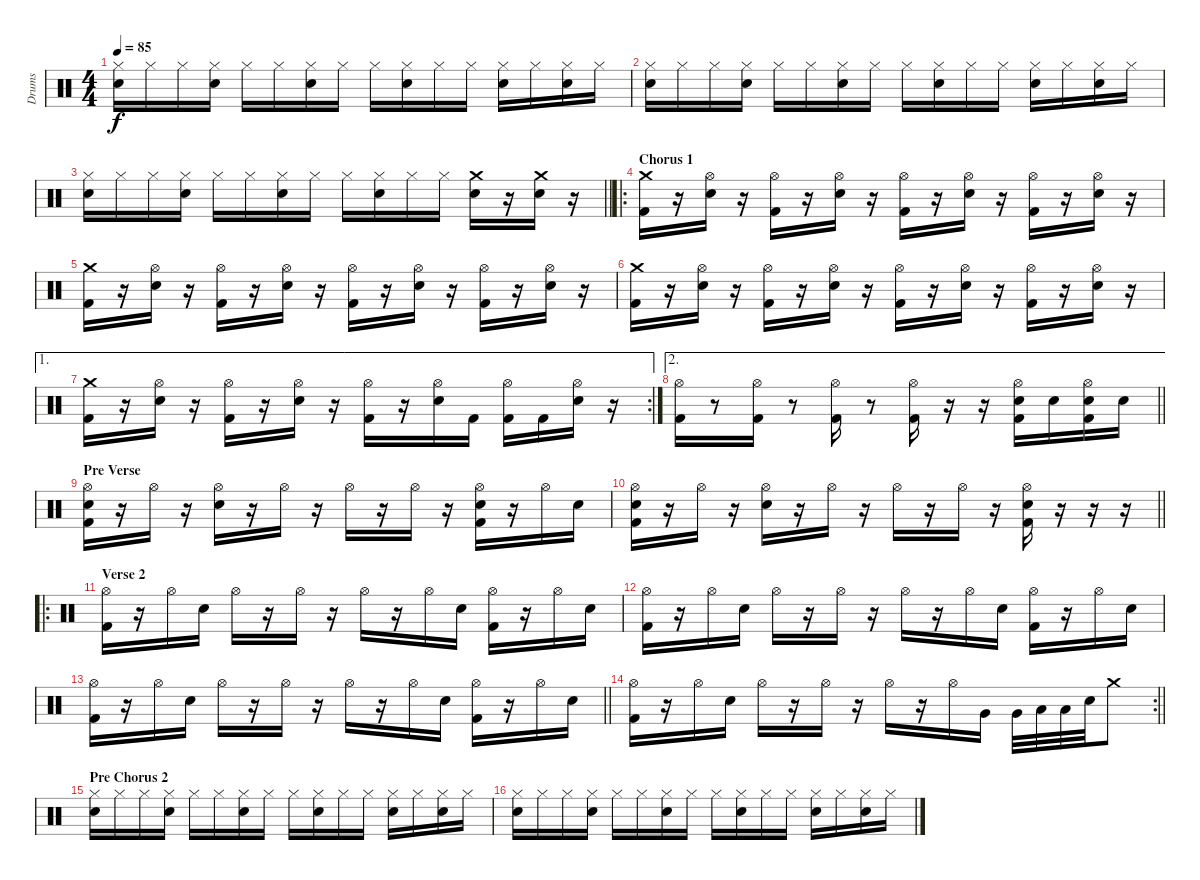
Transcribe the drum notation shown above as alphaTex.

\track ("Drums" "Drums") {instrument percussion}
\staff {score}
\articulation defaults
\ts (4 4)
\tempo 85
\clef neutral
\ks c
("Hi-Hat (closed)" "Snare (hit) 2").16{dy f} "Hi-Hat (closed)".16 "Hi-Hat (closed)".16 ("Hi-Hat (closed)" "Snare (hit) 2").16 "Hi-Hat (closed)".16 "Hi-Hat (closed)".16 ("Hi-Hat (closed)" "Snare (hit) 2").16 "Hi-Hat (closed)".16 "Hi-Hat (closed)".16 ("Hi-Hat (closed)" "Snare (hit) 2").16 "Hi-Hat (closed)".16 "Hi-Hat (closed)".16 ("Hi-Hat (closed)" "Snare (hit) 2").16 "Hi-Hat (closed)".16 ("Hi-Hat (closed)" "Snare (hit) 2").16 "Hi-Hat (closed)".16 |
("Hi-Hat (closed)" "Snare (hit) 2").16 "Hi-Hat (closed)".16 "Hi-Hat (closed)".16 ("Hi-Hat (closed)" "Snare (hit) 2").16 "Hi-Hat (closed)".16 "Hi-Hat (closed)".16 ("Hi-Hat (closed)" "Snare (hit) 2").16 "Hi-Hat (closed)".16 "Hi-Hat (closed)".16 ("Hi-Hat (closed)" "Snare (hit) 2").16 "Hi-Hat (closed)".16 "Hi-Hat (closed)".16 ("Hi-Hat (closed)" "Snare (hit) 2").16 "Hi-Hat (closed)".16 ("Hi-Hat (closed)" "Snare (hit) 2").16 "Hi-Hat (closed)".16 |
\barLineRight lightlight
("Hi-Hat (closed)" "Snare (hit) 2").16 "Hi-Hat (closed)".16 "Hi-Hat (closed)".16 ("Hi-Hat (closed)" "Snare (hit) 2").16 "Hi-Hat (closed)".16 "Hi-Hat (closed)".16 ("Hi-Hat (closed)" "Snare (hit) 2").16 "Hi-Hat (closed)".16 "Hi-Hat (closed)".16 ("Hi-Hat (closed)" "Snare (hit) 2").16 "Hi-Hat (closed)".16 "Hi-Hat (closed)".16 ("Crash medium (hit)" "Snare (hit) 2").16 r.16 ("Crash medium (hit)" "Snare (hit) 2").16 r.16 |
\ro
\section ("" "Chorus 1")
("Crash medium (hit)" "Kick (hit) 2").16 r.16 ("Hi-Hat (open)" "Snare (hit) 2").16 r.16 ("Hi-Hat (open)" "Kick (hit) 2").16 r.16 ("Hi-Hat (open)" "Snare (hit) 2").16 r.16 ("Hi-Hat (open)" "Kick (hit) 2").16 r.16 ("Hi-Hat (open)" "Snare (hit) 2").16 r.16 ("Hi-Hat (open)" "Kick (hit) 2").16 r.16 ("Hi-Hat (open)" "Snare (hit) 2").16 r.16 |
("Crash medium (hit)" "Kick (hit) 2").16 r.16 ("Hi-Hat (open)" "Snare (hit) 2").16 r.16 ("Hi-Hat (open)" "Kick (hit) 2").16 r.16 ("Hi-Hat (open)" "Snare (hit) 2").16 r.16 ("Hi-Hat (open)" "Kick (hit) 2").16 r.16 ("Hi-Hat (open)" "Snare (hit) 2").16 r.16 ("Hi-Hat (open)" "Kick (hit) 2").16 r.16 ("Hi-Hat (open)" "Snare (hit) 2").16 r.16 |
("Crash medium (hit)" "Kick (hit) 2").16 r.16 ("Hi-Hat (open)" "Snare (hit) 2").16 r.16 ("Hi-Hat (open)" "Kick (hit) 2").16 r.16 ("Hi-Hat (open)" "Snare (hit) 2").16 r.16 ("Hi-Hat (open)" "Kick (hit) 2").16 r.16 ("Hi-Hat (open)" "Snare (hit) 2").16 r.16 ("Hi-Hat (open)" "Kick (hit) 2").16 r.16 ("Hi-Hat (open)" "Snare (hit) 2").16 r.16 |
\ae 1
\rc 2
("Crash medium (hit)" "Kick (hit) 2").16 r.16 ("Hi-Hat (open)" "Snare (hit) 2").16 r.16 ("Hi-Hat (open)" "Kick (hit) 2").16 r.16 ("Hi-Hat (open)" "Snare (hit) 2").16 r.16 ("Hi-Hat (open)" "Kick (hit) 2").16 r.16 ("Hi-Hat (open)" "Snare (hit) 2").16 "Kick (hit) 2".16 ("Hi-Hat (open)" "Kick (hit) 2").16 "Kick (hit) 2".16 ("Hi-Hat (open)" "Snare (hit) 2").16 r.16 |
\ae 2
\barLineRight lightlight
("Hi-Hat (open)" "Kick (hit) 2").16 r.8 ("Hi-Hat (open)" "Kick (hit) 2").16 r.8 ("Hi-Hat (open)" "Kick (hit) 2").16 r.8 ("Hi-Hat (open)" "Kick (hit) 2").16 r.16 r.16 ("Hi-Hat (open)" "Snare (hit) 2" "Kick (hit) 2").16 "Snare (hit) 2".16 ("Hi-Hat (open)" "Snare (hit) 2" "Kick (hit) 2").16 "Snare (hit) 2".16 |
\section ("" "Pre Verse")
("Hi-Hat (open)" "Snare (hit) 2" "Kick (hit) 2").16 r.16 "Hi-Hat (open)".16 r.16 ("Hi-Hat (open)" "Snare (hit) 2").16 r.16 "Hi-Hat (open)".16 r.16 "Hi-Hat (open)".16 r.16 "Hi-Hat (open)".16 r.16 ("Hi-Hat (open)" "Snare (hit) 2" "Kick (hit) 2").16 r.16 "Hi-Hat (open)".16 "Snare (hit) 2".16 |
\barLineRight lightlight
("Hi-Hat (open)" "Snare (hit) 2" "Kick (hit) 2").16 r.16 "Hi-Hat (open)".16 r.16 ("Hi-Hat (open)" "Snare (hit) 2").16 r.16 "Hi-Hat (open)".16 r.16 "Hi-Hat (open)".16 r.16 "Hi-Hat (open)".16 r.16 ("Hi-Hat (open)" "Snare (hit) 2" "Kick (hit) 2").16 r.16 r.16 r.16 |
\ro
\section ("" "Verse 2")
("Hi-Hat (open)" "Kick (hit) 2").16 r.16 "Hi-Hat (open)".16 "Snare (hit) 2".16 "Hi-Hat (open)".16 r.16 "Hi-Hat (open)".16 r.16 "Hi-Hat (open)".16 r.16 "Hi-Hat (open)".16 "Snare (hit) 2".16 ("Hi-Hat (open)" "Kick (hit) 2").16 r.16 "Hi-Hat (open)".16 "Snare (hit) 2".16 |
("Hi-Hat (open)" "Kick (hit) 2").16 r.16 "Hi-Hat (open)".16 "Snare (hit) 2".16 "Hi-Hat (open)".16 r.16 "Hi-Hat (open)".16 r.16 "Hi-Hat (open)".16 r.16 "Hi-Hat (open)".16 "Snare (hit) 2".16 ("Hi-Hat (open)" "Kick (hit) 2").16 r.16 "Hi-Hat (open)".16 "Snare (hit) 2".16 |
\barLineRight lightlight
("Hi-Hat (open)" "Kick (hit) 2").16 r.16 "Hi-Hat (open)".16 "Snare (hit) 2".16 "Hi-Hat (open)".16 r.16 "Hi-Hat (open)".16 r.16 "Hi-Hat (open)".16 r.16 "Hi-Hat (open)".16 "Snare (hit) 2".16 ("Hi-Hat (open)" "Kick (hit) 2").16 r.16 "Hi-Hat (open)".16 "Snare (hit) 2".16 |
\rc 2
\barLineRight lightlight
("Hi-Hat (open)" "Kick (hit) 2").16 r.16 "Hi-Hat (open)".16 "Snare (hit) 2".16 "Hi-Hat (open)".16 r.16 "Hi-Hat (open)".16 r.16 "Hi-Hat (open)".16 r.16 "Hi-Hat (open)".16 "Very Low Tom (hit)".16 "Very Low Tom (hit)".32 "Low Tom (hit)".32 "Low Tom (hit)".32 "Snare (hit) 2".32 "Crash medium (hit)".8 |
\section ("" "Pre Chorus 2")
("Hi-Hat (closed)" "Snare (hit) 2").16 "Hi-Hat (closed)".16 "Hi-Hat (closed)".16 ("Hi-Hat (closed)" "Snare (hit) 2").16 "Hi-Hat (closed)".16 "Hi-Hat (closed)".16 ("Hi-Hat (closed)" "Snare (hit) 2").16 "Hi-Hat (closed)".16 "Hi-Hat (closed)".16 ("Hi-Hat (closed)" "Snare (hit) 2").16 "Hi-Hat (closed)".16 "Hi-Hat (closed)".16 ("Hi-Hat (closed)" "Snare (hit) 2").16 "Hi-Hat (closed)".16 ("Hi-Hat (closed)" "Snare (hit) 2").16 "Hi-Hat (closed)".16 |
("Hi-Hat (closed)" "Snare (hit) 2").16 "Hi-Hat (closed)".16 "Hi-Hat (closed)".16 ("Hi-Hat (closed)" "Snare (hit) 2").16 "Hi-Hat (closed)".16 "Hi-Hat (closed)".16 ("Hi-Hat (closed)" "Snare (hit) 2").16 "Hi-Hat (closed)".16 "Hi-Hat (closed)".16 ("Hi-Hat (closed)" "Snare (hit) 2").16 "Hi-Hat (closed)".16 "Hi-Hat (closed)".16 ("Hi-Hat (closed)" "Snare (hit) 2").16 "Hi-Hat (closed)".16 ("Hi-Hat (closed)" "Snare (hit) 2").16 "Hi-Hat (closed)".16
